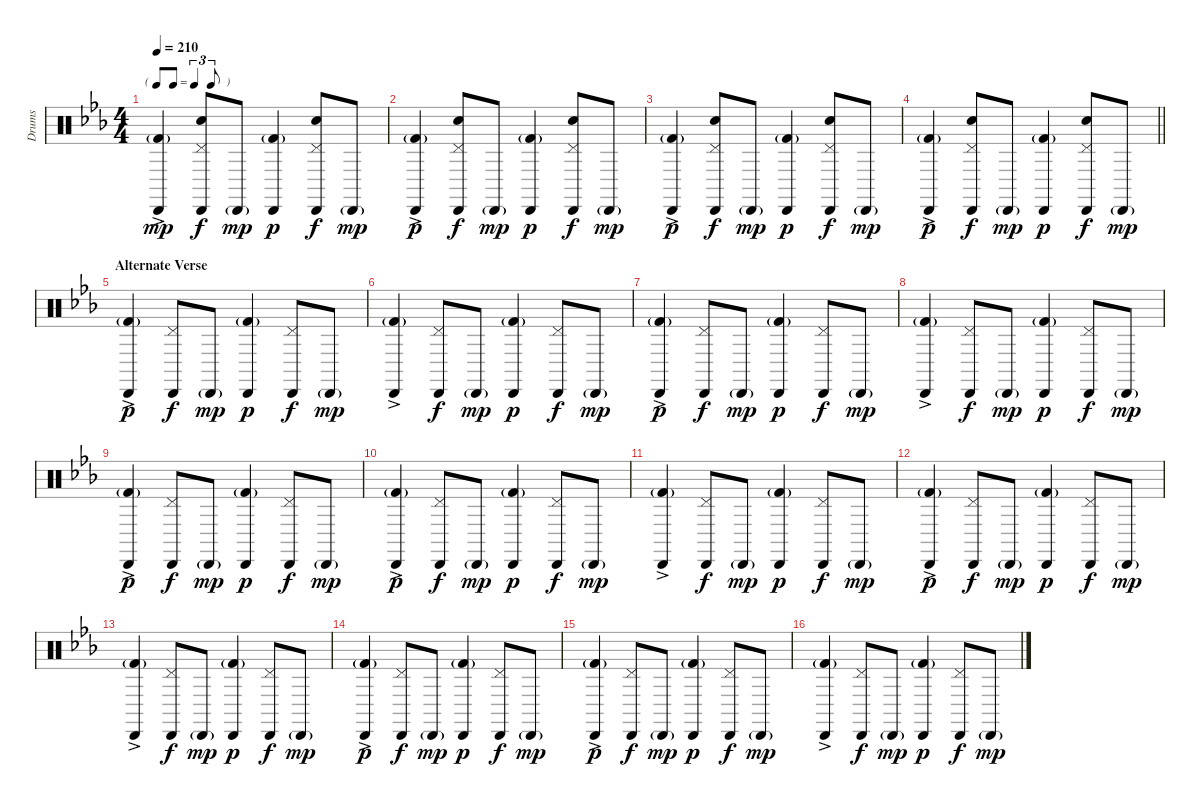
\track ("Drums" "Drums") {instrument percussion}
\staff {score}
\articulation defaults
\ts (4 4)
\tf triplet8th
\tempo 210
\clef neutral
\ks eb
("Cabasa (hit)"{ac} "Kick (hit) 2"{g}).4{dy mp} ("Cabasa (hit)" "Hand Clap (hit)" "Pedal Hi-Hat (hit)").8{dy f} "Cabasa (hit)"{g}.8{dy mp} ("Cabasa (hit)" "Kick (hit) 2"{g}).4{dy p} ("Cabasa (hit)" "Hand Clap (hit)" "Pedal Hi-Hat (hit)").8{dy f} "Cabasa (hit)"{g}.8{dy mp} |
("Cabasa (hit)"{ac} "Kick (hit) 2"{g}).4{dy p} ("Cabasa (hit)" "Hand Clap (hit)" "Pedal Hi-Hat (hit)").8{dy f} "Cabasa (hit)"{g}.8{dy mp} ("Cabasa (hit)" "Kick (hit) 2"{g}).4{dy p} ("Cabasa (hit)" "Hand Clap (hit)" "Pedal Hi-Hat (hit)").8{dy f} "Cabasa (hit)"{g}.8{dy mp} |
("Cabasa (hit)"{ac} "Kick (hit) 2"{g}).4{dy p} ("Cabasa (hit)" "Hand Clap (hit)" "Pedal Hi-Hat (hit)").8{dy f} "Cabasa (hit)"{g}.8{dy mp} ("Cabasa (hit)" "Kick (hit) 2"{g}).4{dy p} ("Cabasa (hit)" "Hand Clap (hit)" "Pedal Hi-Hat (hit)").8{dy f} "Cabasa (hit)"{g}.8{dy mp} |
\barLineRight lightlight
("Cabasa (hit)"{ac} "Kick (hit) 2"{g}).4{dy p} ("Cabasa (hit)" "Hand Clap (hit)" "Pedal Hi-Hat (hit)").8{dy f} "Cabasa (hit)"{g}.8{dy mp} ("Cabasa (hit)" "Kick (hit) 2"{g}).4{dy p} ("Cabasa (hit)" "Hand Clap (hit)" "Pedal Hi-Hat (hit)").8{dy f} "Cabasa (hit)"{g}.8{dy mp} |
\section ("" "Alternate Verse")
("Cabasa (hit)"{ac} "Kick (hit) 2"{g}).4{dy p} ("Cabasa (hit)" "Pedal Hi-Hat (hit)").8{dy f} "Cabasa (hit)"{g}.8{dy mp} ("Cabasa (hit)" "Kick (hit) 2"{g}).4{dy p} ("Cabasa (hit)" "Pedal Hi-Hat (hit)").8{dy f} "Cabasa (hit)"{g}.8{dy mp} |
("Cabasa (hit)"{ac} "Kick (hit) 2"{g}).4 ("Cabasa (hit)" "Pedal Hi-Hat (hit)").8{dy f} "Cabasa (hit)"{g}.8{dy mp} ("Cabasa (hit)" "Kick (hit) 2"{g}).4{dy p} ("Cabasa (hit)" "Pedal Hi-Hat (hit)").8{dy f} "Cabasa (hit)"{g}.8{dy mp} |
("Cabasa (hit)"{ac} "Kick (hit) 2"{g}).4{dy p} ("Cabasa (hit)" "Pedal Hi-Hat (hit)").8{dy f} "Cabasa (hit)"{g}.8{dy mp} ("Cabasa (hit)" "Kick (hit) 2"{g}).4{dy p} ("Cabasa (hit)" "Pedal Hi-Hat (hit)").8{dy f} "Cabasa (hit)"{g}.8{dy mp} |
("Cabasa (hit)"{ac} "Kick (hit) 2"{g}).4 ("Cabasa (hit)" "Pedal Hi-Hat (hit)").8{dy f} "Cabasa (hit)"{g}.8{dy mp} ("Cabasa (hit)" "Kick (hit) 2"{g}).4{dy p} ("Cabasa (hit)" "Pedal Hi-Hat (hit)").8{dy f} "Cabasa (hit)"{g}.8{dy mp} |
("Cabasa (hit)"{ac} "Kick (hit) 2"{g}).4{dy p} ("Cabasa (hit)" "Pedal Hi-Hat (hit)").8{dy f} "Cabasa (hit)"{g}.8{dy mp} ("Cabasa (hit)" "Kick (hit) 2"{g}).4{dy p} ("Cabasa (hit)" "Pedal Hi-Hat (hit)").8{dy f} "Cabasa (hit)"{g}.8{dy mp} |
("Cabasa (hit)"{ac} "Kick (hit) 2"{g}).4{dy p} ("Cabasa (hit)" "Pedal Hi-Hat (hit)").8{dy f} "Cabasa (hit)"{g}.8{dy mp} ("Cabasa (hit)" "Kick (hit) 2"{g}).4{dy p} ("Cabasa (hit)" "Pedal Hi-Hat (hit)").8{dy f} "Cabasa (hit)"{g}.8{dy mp} |
("Cabasa (hit)"{ac} "Kick (hit) 2"{g}).4 ("Cabasa (hit)" "Pedal Hi-Hat (hit)").8{dy f} "Cabasa (hit)"{g}.8{dy mp} ("Cabasa (hit)" "Kick (hit) 2"{g}).4{dy p} ("Cabasa (hit)" "Pedal Hi-Hat (hit)").8{dy f} "Cabasa (hit)"{g}.8{dy mp} |
("Cabasa (hit)"{ac} "Kick (hit) 2"{g}).4{dy p} ("Cabasa (hit)" "Pedal Hi-Hat (hit)").8{dy f} "Cabasa (hit)"{g}.8{dy mp} ("Cabasa (hit)" "Kick (hit) 2"{g}).4{dy p} ("Cabasa (hit)" "Pedal Hi-Hat (hit)").8{dy f} "Cabasa (hit)"{g}.8{dy mp} |
("Cabasa (hit)"{ac} "Kick (hit) 2"{g}).4 ("Cabasa (hit)" "Pedal Hi-Hat (hit)").8{dy f} "Cabasa (hit)"{g}.8{dy mp} ("Cabasa (hit)" "Kick (hit) 2"{g}).4{dy p} ("Cabasa (hit)" "Pedal Hi-Hat (hit)").8{dy f} "Cabasa (hit)"{g}.8{dy mp} |
("Cabasa (hit)"{ac} "Kick (hit) 2"{g}).4{dy p} ("Cabasa (hit)" "Pedal Hi-Hat (hit)").8{dy f} "Cabasa (hit)"{g}.8{dy mp} ("Cabasa (hit)" "Kick (hit) 2"{g}).4{dy p} ("Cabasa (hit)" "Pedal Hi-Hat (hit)").8{dy f} "Cabasa (hit)"{g}.8{dy mp} |
("Cabasa (hit)"{ac} "Kick (hit) 2"{g}).4{dy p} ("Cabasa (hit)" "Pedal Hi-Hat (hit)").8{dy f} "Cabasa (hit)"{g}.8{dy mp} ("Cabasa (hit)" "Kick (hit) 2"{g}).4{dy p} ("Cabasa (hit)" "Pedal Hi-Hat (hit)").8{dy f} "Cabasa (hit)"{g}.8{dy mp} |
("Cabasa (hit)"{ac} "Kick (hit) 2"{g}).4 ("Cabasa (hit)" "Pedal Hi-Hat (hit)").8{dy f} "Cabasa (hit)"{g}.8{dy mp} ("Cabasa (hit)" "Kick (hit) 2"{g}).4{dy p} ("Cabasa (hit)" "Pedal Hi-Hat (hit)").8{dy f} "Cabasa (hit)"{g}.8{dy mp}
